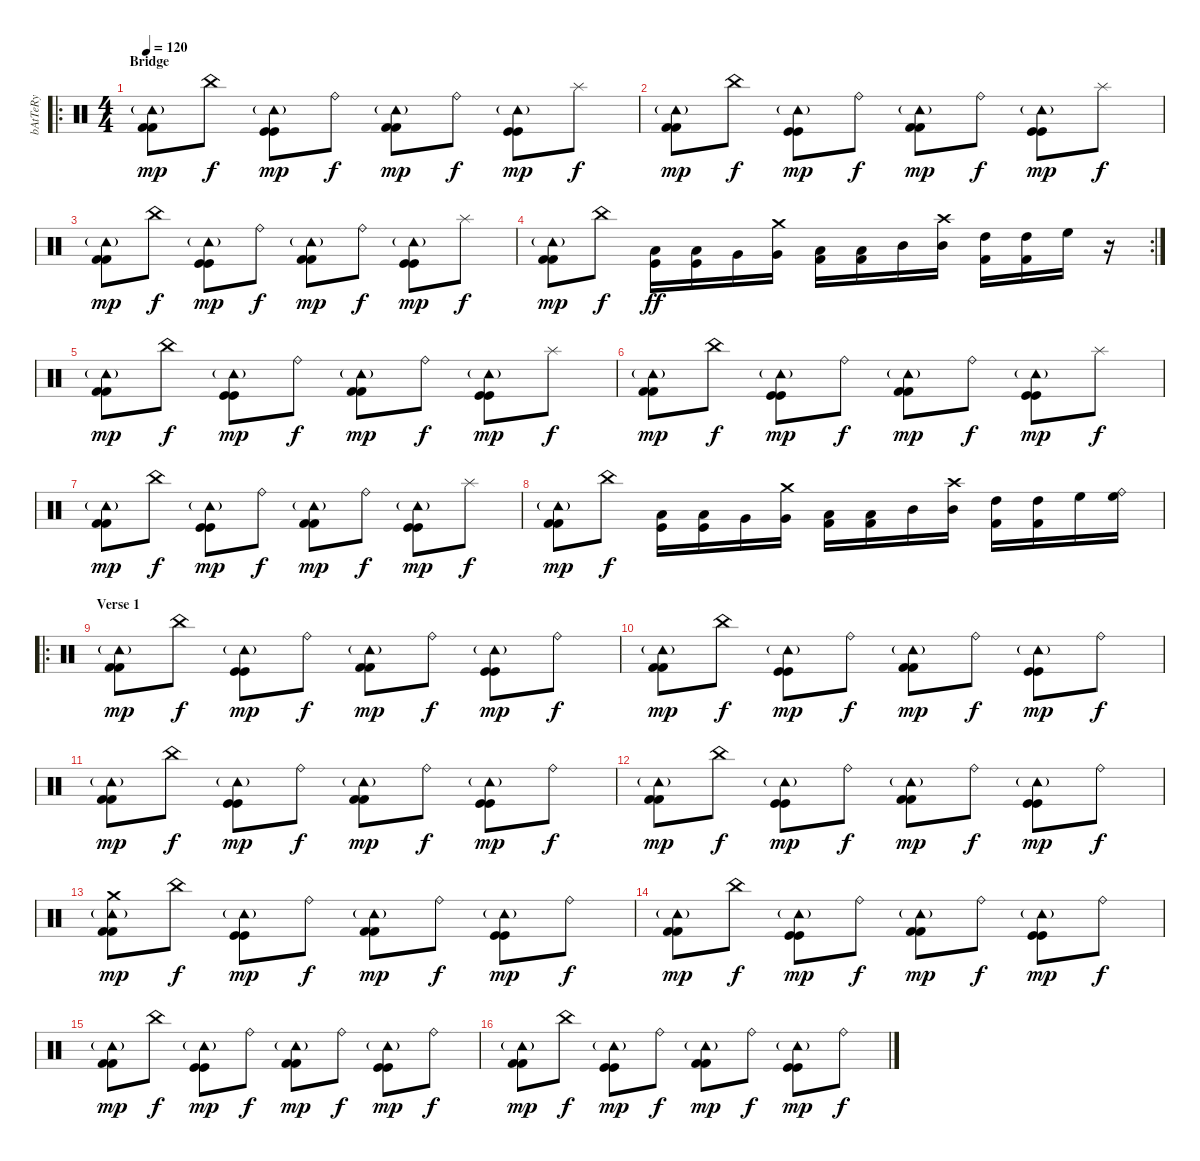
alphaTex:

\track ("bAtTeRy" "bAtTeRy") {instrument percussion}
\staff {score}
\articulation defaults
\ro
\ts (4 4)
\section ("" "Bridge")
\tempo 120
\clef neutral
\ks c
("Tambourine (hit)"{g} "Kick (hit) 2" "Kick (hit) 2").8{dy mp} "China (hit)".8{dy f} ("Tambourine (hit)"{g} "Kick (hit)" "Kick (hit)").8{dy mp} "Ride (bell)".8{dy f} ("Tambourine (hit)"{g} "Kick (hit) 2" "Kick (hit) 2").8{dy mp} "Ride (bell)".8{dy f} ("Tambourine (hit)"{g} "Kick (hit)" "Kick (hit)").8{dy mp} "Splash (hit)".8{dy f} |
("Tambourine (hit)"{g} "Kick (hit) 2" "Kick (hit) 2").8{dy mp} "China (hit)".8{dy f} ("Tambourine (hit)"{g} "Kick (hit)" "Kick (hit)").8{dy mp} "Ride (bell)".8{dy f} ("Tambourine (hit)"{g} "Kick (hit) 2" "Kick (hit) 2").8{dy mp} "Ride (bell)".8{dy f} ("Tambourine (hit)"{g} "Kick (hit)" "Kick (hit)").8{dy mp} "Splash (hit)".8{dy f} |
("Tambourine (hit)"{g} "Kick (hit) 2" "Kick (hit) 2").8{dy mp} "China (hit)".8{dy f} ("Tambourine (hit)"{g} "Kick (hit)" "Kick (hit)").8{dy mp} "Ride (bell)".8{dy f} ("Tambourine (hit)"{g} "Kick (hit) 2" "Kick (hit) 2").8{dy mp} "Ride (bell)".8{dy f} ("Tambourine (hit)"{g} "Kick (hit)" "Kick (hit)").8{dy mp} "Splash (hit)".8{dy f} |
\rc 2
("Tambourine (hit)"{g} "Kick (hit) 2" "Kick (hit) 2").8{dy mp} "China (hit)".8{dy f} ("Kick (hit)" "Low Floor Tom (hit)").16{dy ff} ("Kick (hit)" "Low Floor Tom (hit)").16 "Very Low Tom (hit)".16 ("Crash medium (hit)" "Very Low Tom (hit)").16 ("Kick (hit) 2" "Low Tom (hit)").16 ("Kick (hit) 2" "Low Tom (hit)").16 "Mid Tom (hit)".16 ("Crash high (hit)" "Mid Tom (hit)").16 ("Kick (hit) 2" "High Tom (hit)").16 ("Kick (hit) 2" "High Tom (hit)").16 "High Floor Tom (hit)".16 r.16 |
("Tambourine (hit)"{g} "Kick (hit) 2" "Kick (hit) 2").8{dy mp} "China (hit)".8{dy f} ("Tambourine (hit)"{g} "Kick (hit)" "Kick (hit)").8{dy mp} "Ride (bell)".8{dy f} ("Tambourine (hit)"{g} "Kick (hit) 2" "Kick (hit) 2").8{dy mp} "Ride (bell)".8{dy f} ("Tambourine (hit)"{g} "Kick (hit)" "Kick (hit)").8{dy mp} "Splash (hit)".8{dy f} |
("Tambourine (hit)"{g} "Kick (hit) 2" "Kick (hit) 2").8{dy mp} "China (hit)".8{dy f} ("Tambourine (hit)"{g} "Kick (hit)" "Kick (hit)").8{dy mp} "Ride (bell)".8{dy f} ("Tambourine (hit)"{g} "Kick (hit) 2" "Kick (hit) 2").8{dy mp} "Ride (bell)".8{dy f} ("Tambourine (hit)"{g} "Kick (hit)" "Kick (hit)").8{dy mp} "Splash (hit)".8{dy f} |
("Tambourine (hit)"{g} "Kick (hit) 2" "Kick (hit) 2").8{dy mp} "China (hit)".8{dy f} ("Tambourine (hit)"{g} "Kick (hit)" "Kick (hit)").8{dy mp} "Ride (bell)".8{dy f} ("Tambourine (hit)"{g} "Kick (hit) 2" "Kick (hit) 2").8{dy mp} "Ride (bell)".8{dy f} ("Tambourine (hit)"{g} "Kick (hit)" "Kick (hit)").8{dy mp} "Splash (hit)".8{dy f} |
("Tambourine (hit)"{g} "Kick (hit) 2" "Kick (hit) 2").8{dy mp} "China (hit)".8{dy f} ("Kick (hit)" "Low Floor Tom (hit)").16 ("Kick (hit)" "Low Floor Tom (hit)").16 "Very Low Tom (hit)".16 ("Crash medium (hit)" "Very Low Tom (hit)").16 ("Kick (hit) 2" "Low Tom (hit)").16 ("Kick (hit) 2" "Low Tom (hit)").16 "Mid Tom (hit)".16 ("Crash high (hit)" "Mid Tom (hit)").16 ("Kick (hit) 2" "High Tom (hit)").16 ("Kick (hit) 2" "High Tom (hit)").16 "High Floor Tom (hit)".16 ("Ride (bell)" "High Floor Tom (hit)").16 |
\ro
\section ("" "Verse 1")
("Tambourine (hit)"{g} "Kick (hit) 2" "Kick (hit) 2").8{dy mp} "China (hit)".8{dy f} ("Tambourine (hit)"{g} "Kick (hit)" "Kick (hit)").8{dy mp} "Ride (bell)".8{dy f} ("Tambourine (hit)"{g} "Kick (hit) 2" "Kick (hit) 2").8{dy mp} "Ride (bell)".8{dy f} ("Tambourine (hit)"{g} "Kick (hit)" "Kick (hit)").8{dy mp} "Ride (bell)".8{dy f} |
("Tambourine (hit)"{g} "Kick (hit) 2" "Kick (hit) 2").8{dy mp} "China (hit)".8{dy f} ("Tambourine (hit)"{g} "Kick (hit)" "Kick (hit)").8{dy mp} "Ride (bell)".8{dy f} ("Tambourine (hit)"{g} "Kick (hit) 2" "Kick (hit) 2").8{dy mp} "Ride (bell)".8{dy f} ("Tambourine (hit)"{g} "Kick (hit)" "Kick (hit)").8{dy mp} "Ride (bell)".8{dy f} |
("Tambourine (hit)"{g} "Kick (hit) 2" "Kick (hit) 2").8{dy mp} "China (hit)".8{dy f} ("Tambourine (hit)"{g} "Kick (hit)" "Kick (hit)").8{dy mp} "Ride (bell)".8{dy f} ("Tambourine (hit)"{g} "Kick (hit) 2" "Kick (hit) 2").8{dy mp} "Ride (bell)".8{dy f} ("Tambourine (hit)"{g} "Kick (hit)" "Kick (hit)").8{dy mp} "Ride (bell)".8{dy f} |
("Tambourine (hit)"{g} "Kick (hit) 2" "Kick (hit) 2").8{dy mp} "China (hit)".8{dy f} ("Tambourine (hit)"{g} "Kick (hit)" "Kick (hit)").8{dy mp} "Ride (bell)".8{dy f} ("Tambourine (hit)"{g} "Kick (hit) 2" "Kick (hit) 2").8{dy mp} "Ride (bell)".8{dy f} ("Tambourine (hit)"{g} "Kick (hit)" "Kick (hit)").8{dy mp} "Ride (bell)".8{dy f} |
("Tambourine (hit)"{g} "Crash medium (hit)" "Kick (hit) 2" "Kick (hit) 2").8{dy mp} "China (hit)".8{dy f} ("Tambourine (hit)"{g} "Kick (hit)" "Kick (hit)").8{dy mp} "Ride (bell)".8{dy f} ("Tambourine (hit)"{g} "Kick (hit) 2" "Kick (hit) 2").8{dy mp} "Ride (bell)".8{dy f} ("Tambourine (hit)"{g} "Kick (hit)" "Kick (hit)").8{dy mp} "Ride (bell)".8{dy f} |
("Tambourine (hit)"{g} "Kick (hit) 2" "Kick (hit) 2").8{dy mp} "China (hit)".8{dy f} ("Tambourine (hit)"{g} "Kick (hit)" "Kick (hit)").8{dy mp} "Ride (bell)".8{dy f} ("Tambourine (hit)"{g} "Kick (hit) 2" "Kick (hit) 2").8{dy mp} "Ride (bell)".8{dy f} ("Tambourine (hit)"{g} "Kick (hit)" "Kick (hit)").8{dy mp} "Ride (bell)".8{dy f} |
("Tambourine (hit)"{g} "Kick (hit) 2" "Kick (hit) 2").8{dy mp} "China (hit)".8{dy f} ("Tambourine (hit)"{g} "Kick (hit)" "Kick (hit)").8{dy mp} "Ride (bell)".8{dy f} ("Tambourine (hit)"{g} "Kick (hit) 2" "Kick (hit) 2").8{dy mp} "Ride (bell)".8{dy f} ("Tambourine (hit)"{g} "Kick (hit)" "Kick (hit)").8{dy mp} "Ride (bell)".8{dy f} |
("Tambourine (hit)"{g} "Kick (hit) 2" "Kick (hit) 2").8{dy mp} "China (hit)".8{dy f} ("Tambourine (hit)"{g} "Kick (hit)" "Kick (hit)").8{dy mp} "Ride (bell)".8{dy f} ("Tambourine (hit)"{g} "Kick (hit) 2" "Kick (hit) 2").8{dy mp} "Ride (bell)".8{dy f} ("Tambourine (hit)"{g} "Kick (hit)" "Kick (hit)").8{dy mp} "Ride (bell)".8{dy f}
